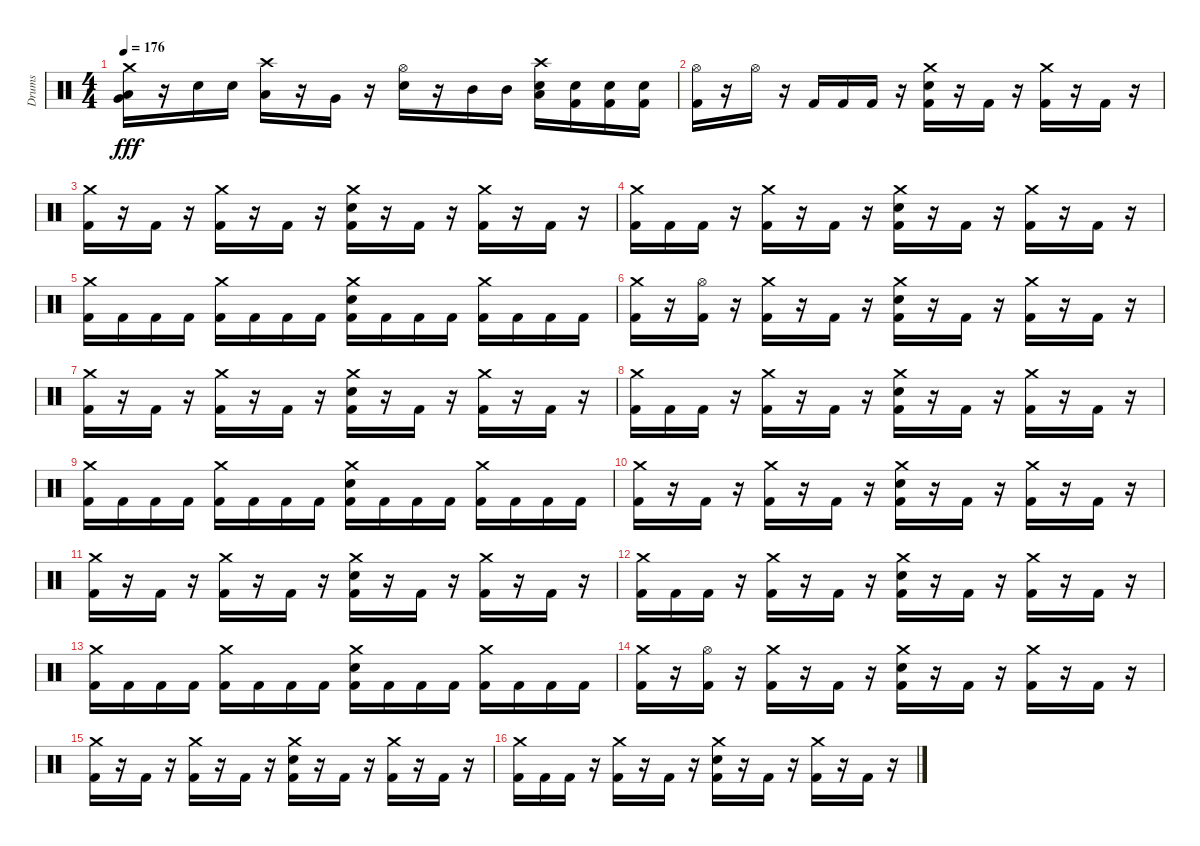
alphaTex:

\track ("Drums" "Drums") {instrument percussion}
\staff {score}
\articulation defaults
\ts (4 4)
\tempo 176
\clef neutral
\ks c
("Very Low Tom (hit)" "Low Tom (hit)" "Crash medium (hit)").16{dy fff} r.16 "Electric Snare (hit)".16 "Electric Snare (hit)".16 ("Crash high (hit)" "Low Tom (hit)").16 r.16 "Very Low Tom (hit)".16 r.16 ("Hi-Hat (open)" "Snare (hit) 2").16 r.16 "Mid Tom (hit)".16 "Mid Tom (hit)".16 ("Crash high (hit)" "Low Tom (hit)" "Electric Snare (hit)").16 ("Kick (hit) 2" "Electric Snare (hit)").16 ("Kick (hit) 2" "Electric Snare (hit)").16 ("Kick (hit) 2" "Electric Snare (hit)").16 |
("Kick (hit) 2" "Hi-Hat (open)").16 r.16 "Hi-Hat (open)".16 r.16 "Kick (hit) 2".16 "Kick (hit) 2".16 "Kick (hit) 2".16 r.16 ("Kick (hit) 2" "Crash medium (hit)" "Electric Snare (hit)").16 r.16 "Kick (hit) 2".16 r.16 ("Kick (hit) 2" "Crash medium (hit)").16 r.16 "Kick (hit) 2".16 r.16 |
("Crash medium (hit)" "Kick (hit) 2").16 r.16 "Kick (hit) 2".16 r.16 ("Crash medium (hit)" "Kick (hit) 2").16 r.16 "Kick (hit) 2".16 r.16 ("Crash medium (hit)" "Kick (hit) 2" "Electric Snare (hit)").16 r.16 "Kick (hit) 2".16 r.16 ("Crash medium (hit)" "Kick (hit) 2").16 r.16 "Kick (hit) 2".16 r.16 |
("Crash medium (hit)" "Kick (hit) 2").16 "Kick (hit) 2".16 "Kick (hit) 2".16 r.16 ("Crash medium (hit)" "Kick (hit) 2").16 r.16 "Kick (hit) 2".16 r.16 ("Crash medium (hit)" "Kick (hit) 2" "Electric Snare (hit)").16 r.16 "Kick (hit) 2".16 r.16 ("Crash medium (hit)" "Kick (hit) 2").16 r.16 "Kick (hit) 2".16 r.16 |
("Crash medium (hit)" "Kick (hit) 2").16 "Kick (hit) 2".16 "Kick (hit) 2".16 "Kick (hit) 2".16 ("Crash medium (hit)" "Kick (hit) 2").16 "Kick (hit) 2".16 "Kick (hit) 2".16 "Kick (hit) 2".16 ("Crash medium (hit)" "Kick (hit) 2" "Electric Snare (hit)").16 "Kick (hit) 2".16 "Kick (hit) 2".16 "Kick (hit) 2".16 ("Crash medium (hit)" "Kick (hit) 2").16 "Kick (hit) 2".16 "Kick (hit) 2".16 "Kick (hit) 2".16 |
("Crash medium (hit)" "Kick (hit) 2").16 r.16 ("Kick (hit) 2" "Hi-Hat (open)").16 r.16 ("Crash medium (hit)" "Kick (hit) 2").16 r.16 "Kick (hit) 2".16 r.16 ("Crash medium (hit)" "Kick (hit) 2" "Electric Snare (hit)").16 r.16 "Kick (hit) 2".16 r.16 ("Crash medium (hit)" "Kick (hit) 2").16 r.16 "Kick (hit) 2".16 r.16 |
("Crash medium (hit)" "Kick (hit) 2").16 r.16 "Kick (hit) 2".16 r.16 ("Crash medium (hit)" "Kick (hit) 2").16 r.16 "Kick (hit) 2".16 r.16 ("Crash medium (hit)" "Kick (hit) 2" "Electric Snare (hit)").16 r.16 "Kick (hit) 2".16 r.16 ("Crash medium (hit)" "Kick (hit) 2").16 r.16 "Kick (hit) 2".16 r.16 |
("Crash medium (hit)" "Kick (hit) 2").16 "Kick (hit) 2".16 "Kick (hit) 2".16 r.16 ("Crash medium (hit)" "Kick (hit) 2").16 r.16 "Kick (hit) 2".16 r.16 ("Crash medium (hit)" "Kick (hit) 2" "Electric Snare (hit)").16 r.16 "Kick (hit) 2".16 r.16 ("Crash medium (hit)" "Kick (hit) 2").16 r.16 "Kick (hit) 2".16 r.16 |
("Crash medium (hit)" "Kick (hit) 2").16 "Kick (hit) 2".16 "Kick (hit) 2".16 "Kick (hit) 2".16 ("Kick (hit) 2" "Crash medium (hit)").16 "Kick (hit) 2".16 "Kick (hit) 2".16 "Kick (hit) 2".16 ("Crash medium (hit)" "Kick (hit) 2" "Electric Snare (hit)").16 "Kick (hit) 2".16 "Kick (hit) 2".16 "Kick (hit) 2".16 ("Crash medium (hit)" "Kick (hit) 2").16 "Kick (hit) 2".16 "Kick (hit) 2".16 "Kick (hit) 2".16 |
("Crash medium (hit)" "Kick (hit) 2").16 r.16 "Kick (hit) 2".16 r.16 ("Crash medium (hit)" "Kick (hit) 2").16 r.16 "Kick (hit) 2".16 r.16 ("Crash medium (hit)" "Kick (hit) 2" "Electric Snare (hit)").16 r.16 "Kick (hit) 2".16 r.16 ("Crash medium (hit)" "Kick (hit) 2").16 r.16 "Kick (hit) 2".16 r.16 |
("Crash medium (hit)" "Kick (hit) 2").16 r.16 "Kick (hit) 2".16 r.16 ("Crash medium (hit)" "Kick (hit) 2").16 r.16 "Kick (hit) 2".16 r.16 ("Crash medium (hit)" "Kick (hit) 2" "Electric Snare (hit)").16 r.16 "Kick (hit) 2".16 r.16 ("Crash medium (hit)" "Kick (hit) 2").16 r.16 "Kick (hit) 2".16 r.16 |
("Crash medium (hit)" "Kick (hit) 2").16 "Kick (hit) 2".16 "Kick (hit) 2".16 r.16 ("Crash medium (hit)" "Kick (hit) 2").16 r.16 "Kick (hit) 2".16 r.16 ("Crash medium (hit)" "Kick (hit) 2" "Electric Snare (hit)").16 r.16 "Kick (hit) 2".16 r.16 ("Crash medium (hit)" "Kick (hit) 2").16 r.16 "Kick (hit) 2".16 r.16 |
("Crash medium (hit)" "Kick (hit) 2").16 "Kick (hit) 2".16 "Kick (hit) 2".16 "Kick (hit) 2".16 ("Crash medium (hit)" "Kick (hit) 2").16 "Kick (hit) 2".16 "Kick (hit) 2".16 "Kick (hit) 2".16 ("Crash medium (hit)" "Kick (hit) 2" "Electric Snare (hit)").16 "Kick (hit) 2".16 "Kick (hit) 2".16 "Kick (hit) 2".16 ("Crash medium (hit)" "Kick (hit) 2").16 "Kick (hit) 2".16 "Kick (hit) 2".16 "Kick (hit) 2".16 |
("Crash medium (hit)" "Kick (hit) 2").16 r.16 ("Hi-Hat (open)" "Kick (hit) 2").16 r.16 ("Crash medium (hit)" "Kick (hit) 2").16 r.16 "Kick (hit) 2".16 r.16 ("Crash medium (hit)" "Kick (hit) 2" "Electric Snare (hit)").16 r.16 "Kick (hit) 2".16 r.16 ("Crash medium (hit)" "Kick (hit) 2").16 r.16 "Kick (hit) 2".16 r.16 |
("Crash medium (hit)" "Kick (hit) 2").16 r.16 "Kick (hit) 2".16 r.16 ("Crash medium (hit)" "Kick (hit) 2").16 r.16 "Kick (hit) 2".16 r.16 ("Crash medium (hit)" "Kick (hit) 2" "Electric Snare (hit)").16 r.16 "Kick (hit) 2".16 r.16 ("Crash medium (hit)" "Kick (hit) 2").16 r.16 "Kick (hit) 2".16 r.16 |
("Crash medium (hit)" "Kick (hit) 2").16 "Kick (hit) 2".16 "Kick (hit) 2".16 r.16 ("Crash medium (hit)" "Kick (hit) 2").16 r.16 "Kick (hit) 2".16 r.16 ("Crash medium (hit)" "Kick (hit) 2" "Electric Snare (hit)").16 r.16 "Kick (hit) 2".16 r.16 ("Crash medium (hit)" "Kick (hit) 2").16 r.16 "Kick (hit) 2".16 r.16
